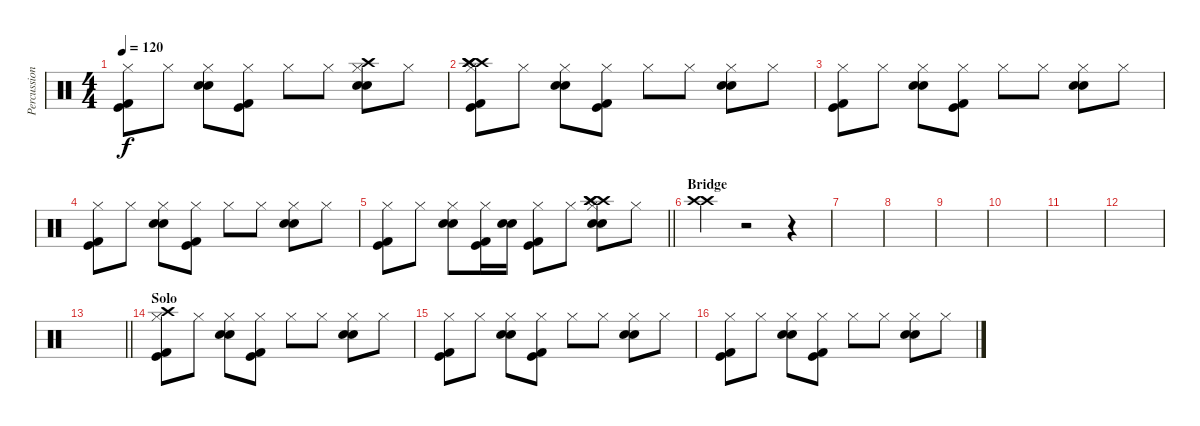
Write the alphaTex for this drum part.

\track ("Percussions" "Percussion") {instrument percussion}
\staff {score}
\articulation defaults
\ts (4 4)
\tempo 120
\clef neutral
\ks c
("Hi-Hat (closed)" "Kick (hit)" "Kick (hit) 2").8{dy f} "Hi-Hat (closed)".8 ("Hi-Hat (closed)" "Electric Snare (hit)" "Electric Snare (hit)").8 ("Hi-Hat (closed)" "Kick (hit)" "Kick (hit) 2").8 "Hi-Hat (closed)".8 "Hi-Hat (closed)".8 ("Hi-Hat (closed)" "Electric Snare (hit)" "Electric Snare (hit)" "Crash high (hit)").8 "Hi-Hat (closed)".8 |
("Crash high (hit)" "Hi-Hat (closed)" "Crash high (hit)" "Kick (hit)" "Kick (hit) 2" "Crash high (hit)").8 "Hi-Hat (closed)".8 ("Hi-Hat (closed)" "Electric Snare (hit)" "Electric Snare (hit)").8 ("Hi-Hat (closed)" "Kick (hit)" "Kick (hit) 2").8 "Hi-Hat (closed)".8 "Hi-Hat (closed)".8 ("Hi-Hat (closed)" "Electric Snare (hit)" "Electric Snare (hit)").8 "Hi-Hat (closed)".8 |
("Hi-Hat (closed)" "Kick (hit)" "Kick (hit) 2").8 "Hi-Hat (closed)".8 ("Hi-Hat (closed)" "Electric Snare (hit)" "Electric Snare (hit)").8 ("Hi-Hat (closed)" "Kick (hit)" "Kick (hit) 2").8 "Hi-Hat (closed)".8 "Hi-Hat (closed)".8 ("Hi-Hat (closed)" "Electric Snare (hit)" "Electric Snare (hit)").8 "Hi-Hat (closed)".8 |
("Hi-Hat (closed)" "Kick (hit)" "Kick (hit) 2").8 "Hi-Hat (closed)".8 ("Hi-Hat (closed)" "Electric Snare (hit)" "Electric Snare (hit)").8 ("Hi-Hat (closed)" "Kick (hit)" "Kick (hit) 2").8 "Hi-Hat (closed)".8 "Hi-Hat (closed)".8 ("Hi-Hat (closed)" "Electric Snare (hit)" "Electric Snare (hit)").8 "Hi-Hat (closed)".8 |
\barLineRight lightlight
("Hi-Hat (closed)" "Kick (hit)" "Kick (hit) 2").8 "Hi-Hat (closed)".8 ("Hi-Hat (closed)" "Electric Snare (hit)" "Electric Snare (hit)").8 ("Hi-Hat (closed)" "Kick (hit)" "Kick (hit) 2").16 ("Electric Snare (hit)" "Electric Snare (hit)").16 ("Hi-Hat (closed)" "Kick (hit)" "Kick (hit) 2").8 "Hi-Hat (closed)".8 ("Crash high (hit)" "Hi-Hat (closed)" "Electric Snare (hit)" "Electric Snare (hit)" "Crash high (hit)" "Crash high (hit)").8 "Hi-Hat (closed)".8 |
\section ("" "Bridge")
("Crash high (hit)" "Crash high (hit)").4 r.2 r.4 |
|
|
|
|
|
|
\barLineRight lightlight
|
\section ("" "Solo")
("Crash high (hit)" "Hi-Hat (closed)" "Kick (hit)" "Kick (hit) 2").8 "Hi-Hat (closed)".8 ("Hi-Hat (closed)" "Electric Snare (hit)" "Electric Snare (hit)").8 ("Hi-Hat (closed)" "Kick (hit)" "Kick (hit) 2").8 "Hi-Hat (closed)".8 "Hi-Hat (closed)".8 ("Hi-Hat (closed)" "Electric Snare (hit)" "Electric Snare (hit)").8 "Hi-Hat (closed)".8 |
("Hi-Hat (closed)" "Kick (hit)" "Kick (hit) 2").8 "Hi-Hat (closed)".8 ("Hi-Hat (closed)" "Electric Snare (hit)" "Electric Snare (hit)").8 ("Hi-Hat (closed)" "Kick (hit)" "Kick (hit) 2").8 "Hi-Hat (closed)".8 "Hi-Hat (closed)".8 ("Hi-Hat (closed)" "Electric Snare (hit)" "Electric Snare (hit)").8 "Hi-Hat (closed)".8 |
("Hi-Hat (closed)" "Kick (hit)" "Kick (hit) 2").8 "Hi-Hat (closed)".8 ("Hi-Hat (closed)" "Electric Snare (hit)" "Electric Snare (hit)").8 ("Hi-Hat (closed)" "Kick (hit)" "Kick (hit) 2").8 "Hi-Hat (closed)".8 "Hi-Hat (closed)".8 ("Hi-Hat (closed)" "Electric Snare (hit)" "Electric Snare (hit)").8 "Hi-Hat (closed)".8
